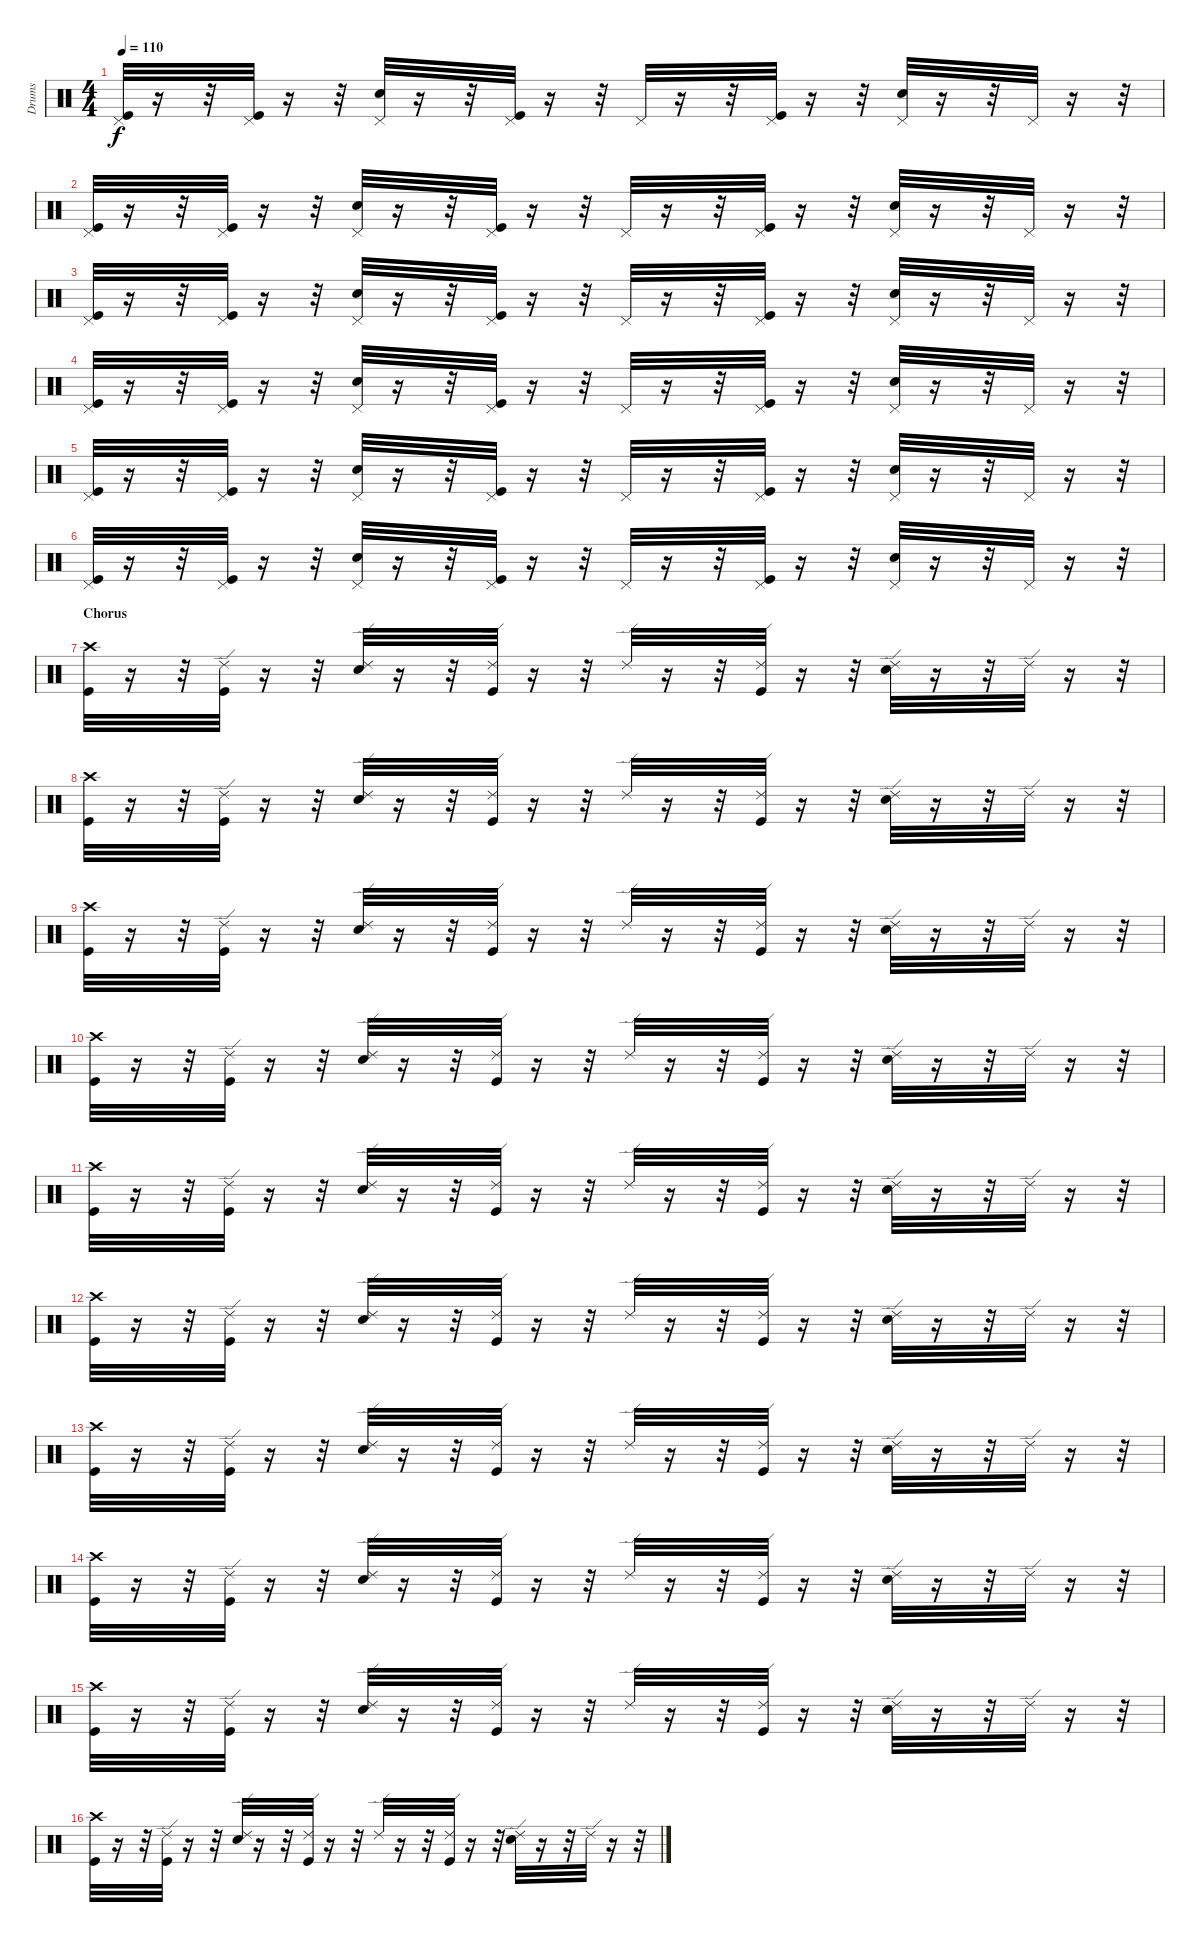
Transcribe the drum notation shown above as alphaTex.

\track ("Drums" "Drums") {instrument percussion}
\staff {score}
\articulation defaults
\ts (4 4)
\tempo 110
\clef neutral
\ks c
("Pedal Hi-Hat (hit)" "Kick (hit)").32{dy f} r.16 r.32 ("Pedal Hi-Hat (hit)" "Kick (hit)").32 r.16 r.32 ("Pedal Hi-Hat (hit)" "Electric Snare (hit)").32 r.16 r.32 ("Pedal Hi-Hat (hit)" "Kick (hit)").32 r.16 r.32 "Pedal Hi-Hat (hit)".32 r.16 r.32 ("Pedal Hi-Hat (hit)" "Kick (hit)").32 r.16 r.32 ("Pedal Hi-Hat (hit)" "Electric Snare (hit)").32 r.16 r.32 "Pedal Hi-Hat (hit)".32 r.16 r.32 |
("Pedal Hi-Hat (hit)" "Kick (hit)").32 r.16 r.32 ("Pedal Hi-Hat (hit)" "Kick (hit)").32 r.16 r.32 ("Pedal Hi-Hat (hit)" "Electric Snare (hit)").32 r.16 r.32 ("Pedal Hi-Hat (hit)" "Kick (hit)").32 r.16 r.32 "Pedal Hi-Hat (hit)".32 r.16 r.32 ("Pedal Hi-Hat (hit)" "Kick (hit)").32 r.16 r.32 ("Pedal Hi-Hat (hit)" "Electric Snare (hit)").32 r.16 r.32 "Pedal Hi-Hat (hit)".32 r.16 r.32 |
("Pedal Hi-Hat (hit)" "Kick (hit)").32 r.16 r.32 ("Pedal Hi-Hat (hit)" "Kick (hit)").32 r.16 r.32 ("Pedal Hi-Hat (hit)" "Electric Snare (hit)").32 r.16 r.32 ("Pedal Hi-Hat (hit)" "Kick (hit)").32 r.16 r.32 "Pedal Hi-Hat (hit)".32 r.16 r.32 ("Pedal Hi-Hat (hit)" "Kick (hit)").32 r.16 r.32 ("Pedal Hi-Hat (hit)" "Electric Snare (hit)").32 r.16 r.32 "Pedal Hi-Hat (hit)".32 r.16 r.32 |
("Pedal Hi-Hat (hit)" "Kick (hit)").32 r.16 r.32 ("Pedal Hi-Hat (hit)" "Kick (hit)").32 r.16 r.32 ("Pedal Hi-Hat (hit)" "Electric Snare (hit)").32 r.16 r.32 ("Pedal Hi-Hat (hit)" "Kick (hit)").32 r.16 r.32 "Pedal Hi-Hat (hit)".32 r.16 r.32 ("Pedal Hi-Hat (hit)" "Kick (hit)").32 r.16 r.32 ("Pedal Hi-Hat (hit)" "Electric Snare (hit)").32 r.16 r.32 "Pedal Hi-Hat (hit)".32 r.16 r.32 |
("Pedal Hi-Hat (hit)" "Kick (hit)").32 r.16 r.32 ("Pedal Hi-Hat (hit)" "Kick (hit)").32 r.16 r.32 ("Pedal Hi-Hat (hit)" "Electric Snare (hit)").32 r.16 r.32 ("Pedal Hi-Hat (hit)" "Kick (hit)").32 r.16 r.32 "Pedal Hi-Hat (hit)".32 r.16 r.32 ("Pedal Hi-Hat (hit)" "Kick (hit)").32 r.16 r.32 ("Pedal Hi-Hat (hit)" "Electric Snare (hit)").32 r.16 r.32 "Pedal Hi-Hat (hit)".32 r.16 r.32 |
("Pedal Hi-Hat (hit)" "Kick (hit)").32 r.16 r.32 ("Pedal Hi-Hat (hit)" "Kick (hit)").32 r.16 r.32 ("Pedal Hi-Hat (hit)" "Electric Snare (hit)").32 r.16 r.32 ("Pedal Hi-Hat (hit)" "Kick (hit)").32 r.16 r.32 "Pedal Hi-Hat (hit)".32 r.16 r.32 ("Pedal Hi-Hat (hit)" "Kick (hit)").32 r.16 r.32 ("Pedal Hi-Hat (hit)" "Electric Snare (hit)").32 r.16 r.32 "Pedal Hi-Hat (hit)".32 r.16 r.32 |
\section ("" "Chorus")
("Kick (hit)" "Crash high (hit)").32 r.16 r.32 ("Ride (edge) 2" "Kick (hit)").32 r.16 r.32 ("Ride (edge) 2" "Electric Snare (hit)").32 r.16 r.32 ("Ride (edge) 2" "Kick (hit)").32 r.16 r.32 "Ride (edge) 2".32 r.16 r.32 ("Ride (edge) 2" "Kick (hit)").32 r.16 r.32 ("Ride (edge) 2" "Electric Snare (hit)").32 r.16 r.32 "Ride (edge) 2".32 r.16 r.32 |
("Kick (hit)" "Crash high (hit)").32 r.16 r.32 ("Ride (edge) 2" "Kick (hit)").32 r.16 r.32 ("Ride (edge) 2" "Electric Snare (hit)").32 r.16 r.32 ("Ride (edge) 2" "Kick (hit)").32 r.16 r.32 "Ride (edge) 2".32 r.16 r.32 ("Ride (edge) 2" "Kick (hit)").32 r.16 r.32 ("Ride (edge) 2" "Electric Snare (hit)").32 r.16 r.32 "Ride (edge) 2".32 r.16 r.32 |
("Kick (hit)" "Crash high (hit)").32 r.16 r.32 ("Ride (edge) 2" "Kick (hit)").32 r.16 r.32 ("Ride (edge) 2" "Electric Snare (hit)").32 r.16 r.32 ("Ride (edge) 2" "Kick (hit)").32 r.16 r.32 "Ride (edge) 2".32 r.16 r.32 ("Ride (edge) 2" "Kick (hit)").32 r.16 r.32 ("Ride (edge) 2" "Electric Snare (hit)").32 r.16 r.32 "Ride (edge) 2".32 r.16 r.32 |
("Kick (hit)" "Crash high (hit)").32 r.16 r.32 ("Ride (edge) 2" "Kick (hit)").32 r.16 r.32 ("Ride (edge) 2" "Electric Snare (hit)").32 r.16 r.32 ("Ride (edge) 2" "Kick (hit)").32 r.16 r.32 "Ride (edge) 2".32 r.16 r.32 ("Ride (edge) 2" "Kick (hit)").32 r.16 r.32 ("Ride (edge) 2" "Electric Snare (hit)").32 r.16 r.32 "Ride (edge) 2".32 r.16 r.32 |
("Kick (hit)" "Crash high (hit)").32 r.16 r.32 ("Ride (edge) 2" "Kick (hit)").32 r.16 r.32 ("Ride (edge) 2" "Electric Snare (hit)").32 r.16 r.32 ("Ride (edge) 2" "Kick (hit)").32 r.16 r.32 "Ride (edge) 2".32 r.16 r.32 ("Ride (edge) 2" "Kick (hit)").32 r.16 r.32 ("Ride (edge) 2" "Electric Snare (hit)").32 r.16 r.32 "Ride (edge) 2".32 r.16 r.32 |
("Kick (hit)" "Crash high (hit)").32 r.16 r.32 ("Ride (edge) 2" "Kick (hit)").32 r.16 r.32 ("Ride (edge) 2" "Electric Snare (hit)").32 r.16 r.32 ("Ride (edge) 2" "Kick (hit)").32 r.16 r.32 "Ride (edge) 2".32 r.16 r.32 ("Ride (edge) 2" "Kick (hit)").32 r.16 r.32 ("Ride (edge) 2" "Electric Snare (hit)").32 r.16 r.32 "Ride (edge) 2".32 r.16 r.32 |
("Kick (hit)" "Crash high (hit)").32 r.16 r.32 ("Ride (edge) 2" "Kick (hit)").32 r.16 r.32 ("Ride (edge) 2" "Electric Snare (hit)").32 r.16 r.32 ("Ride (edge) 2" "Kick (hit)").32 r.16 r.32 "Ride (edge) 2".32 r.16 r.32 ("Ride (edge) 2" "Kick (hit)").32 r.16 r.32 ("Ride (edge) 2" "Electric Snare (hit)").32 r.16 r.32 "Ride (edge) 2".32 r.16 r.32 |
("Kick (hit)" "Crash high (hit)").32 r.16 r.32 ("Ride (edge) 2" "Kick (hit)").32 r.16 r.32 ("Ride (edge) 2" "Electric Snare (hit)").32 r.16 r.32 ("Ride (edge) 2" "Kick (hit)").32 r.16 r.32 "Ride (edge) 2".32 r.16 r.32 ("Ride (edge) 2" "Kick (hit)").32 r.16 r.32 ("Ride (edge) 2" "Electric Snare (hit)").32 r.16 r.32 "Ride (edge) 2".32 r.16 r.32 |
("Kick (hit)" "Crash high (hit)").32 r.16 r.32 ("Ride (edge) 2" "Kick (hit)").32 r.16 r.32 ("Ride (edge) 2" "Electric Snare (hit)").32 r.16 r.32 ("Ride (edge) 2" "Kick (hit)").32 r.16 r.32 "Ride (edge) 2".32 r.16 r.32 ("Ride (edge) 2" "Kick (hit)").32 r.16 r.32 ("Ride (edge) 2" "Electric Snare (hit)").32 r.16 r.32 "Ride (edge) 2".32 r.16 r.32 |
("Kick (hit)" "Crash high (hit)").32 r.16 r.32 ("Ride (edge) 2" "Kick (hit)").32 r.16 r.32 ("Ride (edge) 2" "Electric Snare (hit)").32 r.16 r.32 ("Ride (edge) 2" "Kick (hit)").32 r.16 r.32 "Ride (edge) 2".32 r.16 r.32 ("Ride (edge) 2" "Kick (hit)").32 r.16 r.32 ("Ride (edge) 2" "Electric Snare (hit)").32 r.16 r.32 "Ride (edge) 2".32 r.16 r.32
